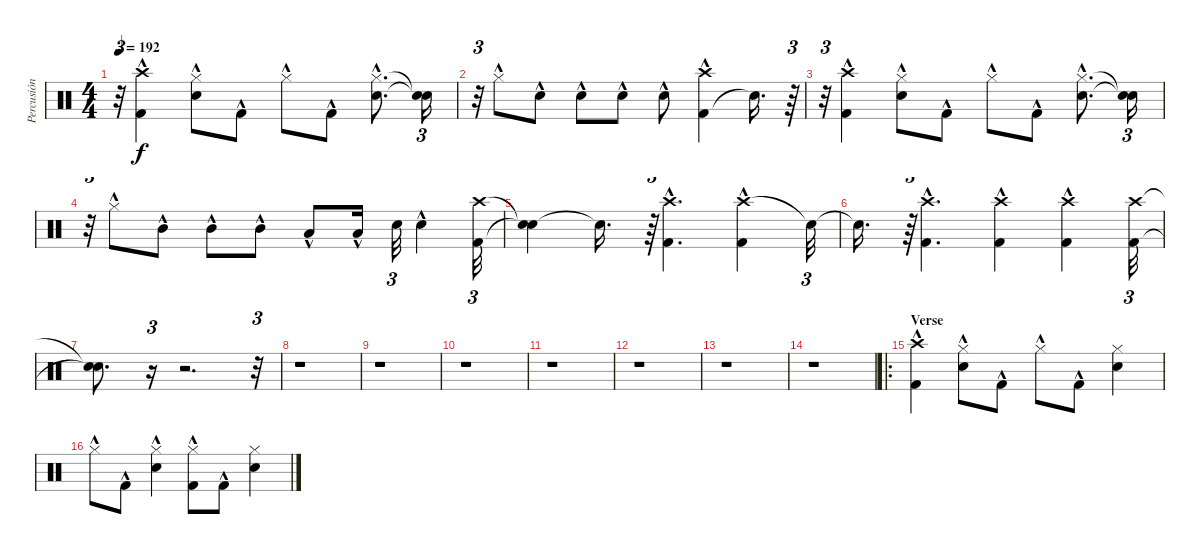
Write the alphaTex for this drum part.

\track ("Percusión" "Percusión") {instrument percussion}
\staff {score}
\articulation defaults
\ts (4 4)
\tempo 192
\clef neutral
\ks c
r.32{tu (3 2) dy f} ("Crash high (hit)"{hac} "Kick (hit) 2"{hac}).4 ("Hi-Hat (closed)"{hac} "Snare (hit) 2"{hac}).8 "Kick (hit) 2"{hac}.8 "Hi-Hat (closed)"{hac}.8 "Kick (hit) 2"{hac}.8 ("Snare (hit) 2"{hac} "Hi-Hat (closed)"{hac}).8{d} ("Snare (hit)"{t} "Snare (hit)"{t}).16{tu (3 2)} |
r.32{tu (3 2)} "Hi-Hat (closed)"{hac}.8 "Snare (hit) 2"{hac}.8 "Snare (hit) 2"{hac}.8 "Snare (hit) 2"{hac}.8 "Snare (hit) 2"{hac}.8 ("Kick (hit) 2"{hac} "Crash high (hit)").4 "Snare (hit)"{t}.16{d} r.64{tu (3 2)} |
r.32{tu (3 2)} ("Kick (hit) 2"{hac} "Crash high (hit)"{hac}).4 ("Snare (hit) 2"{hac} "Hi-Hat (closed)"{hac}).8 "Kick (hit) 2"{hac}.8 "Hi-Hat (closed)"{hac}.8 "Kick (hit) 2"{hac}.8 ("Snare (hit) 2"{hac} "Hi-Hat (closed)"{hac}).8{d} ("Snare (hit)"{t} "Snare (hit)"{t}).16{tu (3 2)} |
r.32{tu (3 2)} "Hi-Hat (closed)"{hac}.8 "Mid Tom (hit)"{hac}.8 "Mid Tom (hit)"{hac}.8 "Mid Tom (hit)"{hac}.8 "Low Tom (hit)"{hac}.8 "Low Tom (hit)"{hac}.16 "Snare (hit) 2".32{tu (3 2)} "Snare (hit) 2"{hac}.4 ("Kick (hit) 2" "Crash high (hit)").32{tu (3 2)} |
("Snare (hit)"{t} "Snare (hit)"{t}).4 "Snare (hit)"{t}.16{d} r.64{tu (3 2)} ("Kick (hit) 2"{hac} "Crash high (hit)").4{d} ("Crash high (hit)" "Kick (hit) 2"{hac}).4 "Snare (hit)"{t}.32{tu (3 2)} |
"Snare (hit)"{t}.16{d} r.64{tu (3 2)} ("Kick (hit) 2"{hac} "Crash high (hit)").4{d} ("Crash high (hit)"{hac} "Kick (hit) 2"{hac}).4 ("Crash high (hit)"{hac} "Kick (hit) 2"{hac}).4 ("Kick (hit) 2" "Crash high (hit)").32{tu (3 2)} |
("Snare (hit)"{t} "Snare (hit)"{t}).8{d} r.16{tu (3 2)} r.2{d} r.32{tu (3 2)} |
r.1 |
r.1 |
r.1 |
r.1 |
r.1 |
r.1 |
r.1 |
\ro
\section ("" "Verse")
("Crash high (hit)"{hac} "Kick (hit) 2"{hac}).4 ("Hi-Hat (closed)"{hac} "Electric Snare (hit)"{hac}).8 "Kick (hit) 2"{hac}.8 "Hi-Hat (closed)"{hac}.8 "Kick (hit) 2"{hac}.8 ("Electric Snare (hit)" "Hi-Hat (closed)").4 |
"Hi-Hat (closed)"{hac}.8 "Kick (hit) 2"{hac}.8 ("Electric Snare (hit)"{hac} "Hi-Hat (closed)"{hac}).4 ("Kick (hit) 2"{hac} "Hi-Hat (closed)"{hac}).8 "Kick (hit) 2"{hac}.8 ("Electric Snare (hit)" "Hi-Hat (closed)").4
